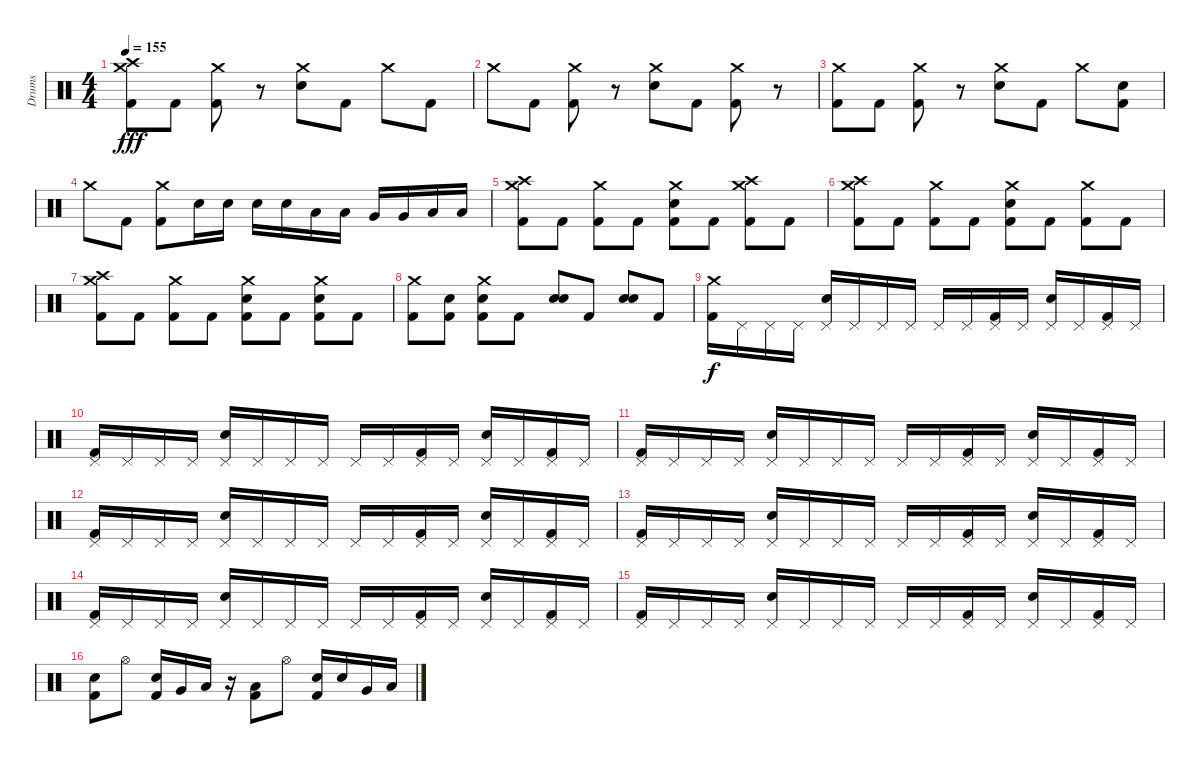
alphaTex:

\track ("Drums" "Drums") {instrument percussion}
\staff {score}
\articulation defaults
\ts (4 4)
\tempo 155
\clef neutral
\ks c
("Crash high (hit)" "Crash medium (hit)" "Kick (hit) 2").8{dy fff} "Kick (hit) 2".8 ("Crash medium (hit)" "Kick (hit) 2").8 r.8 ("Crash medium (hit)" "Electric Snare (hit)").8 "Kick (hit) 2".8 "Crash medium (hit)".8 "Kick (hit) 2".8 |
"Crash medium (hit)".8 "Kick (hit) 2".8 ("Crash medium (hit)" "Kick (hit) 2").8 r.8 ("Crash medium (hit)" "Electric Snare (hit)").8 "Kick (hit) 2".8 ("Crash medium (hit)" "Kick (hit) 2").8 r.8 |
("Crash medium (hit)" "Kick (hit) 2").8 "Kick (hit) 2".8 ("Crash medium (hit)" "Kick (hit) 2").8 r.8 ("Crash medium (hit)" "Electric Snare (hit)").8 "Kick (hit) 2".8 "Crash medium (hit)".8 ("Electric Snare (hit)" "Kick (hit) 2").8 |
"Crash medium (hit)".8 "Kick (hit) 2".8 ("Crash medium (hit)" "Kick (hit) 2").8 "Electric Snare (hit)".16 "Electric Snare (hit)".16 "Electric Snare (hit)".16 "Electric Snare (hit)".16 "Low Tom (hit)".16 "Low Tom (hit)".16 "Very Low Tom (hit)".16 "Very Low Tom (hit)".16 "Low Floor Tom (hit)".16 "Low Floor Tom (hit)".16 |
("Crash high (hit)" "Crash medium (hit)" "Kick (hit) 2").8 "Kick (hit) 2".8 ("Crash medium (hit)" "Kick (hit) 2").8 "Kick (hit) 2".8 ("Crash medium (hit)" "Electric Snare (hit)" "Kick (hit) 2").8 "Kick (hit) 2".8 ("Crash high (hit)" "Crash medium (hit)" "Kick (hit) 2").8 "Kick (hit) 2".8 |
("Crash high (hit)" "Crash medium (hit)" "Kick (hit) 2").8 "Kick (hit) 2".8 ("Crash medium (hit)" "Kick (hit) 2").8 "Kick (hit) 2".8 ("Crash medium (hit)" "Electric Snare (hit)" "Kick (hit) 2").8 "Kick (hit) 2".8 ("Crash medium (hit)" "Kick (hit) 2").8 "Kick (hit) 2".8 |
("Crash high (hit)" "Crash medium (hit)" "Kick (hit) 2").8 "Kick (hit) 2".8 ("Crash medium (hit)" "Kick (hit) 2").8 "Kick (hit) 2".8 ("Crash medium (hit)" "Electric Snare (hit)" "Kick (hit) 2").8 "Kick (hit) 2".8 ("Crash medium (hit)" "Electric Snare (hit)" "Kick (hit) 2").8 "Kick (hit) 2".8 |
("Crash medium (hit)" "Kick (hit) 2").8 ("Electric Snare (hit)" "Kick (hit) 2").8 ("Crash medium (hit)" "Electric Snare (hit)" "Kick (hit) 2").8 "Kick (hit) 2".8 ("Electric Snare (hit)" "Electric Snare (hit)").8 "Kick (hit) 2".8 ("Electric Snare (hit)" "Electric Snare (hit)").8 "Kick (hit) 2".8 |
("Crash medium (hit)" "Kick (hit) 2").16{dy f} "Pedal Hi-Hat (hit)".16 "Pedal Hi-Hat (hit)".16 "Pedal Hi-Hat (hit)".16 ("Pedal Hi-Hat (hit)" "Electric Snare (hit)").16 "Pedal Hi-Hat (hit)".16 "Pedal Hi-Hat (hit)".16 "Pedal Hi-Hat (hit)".16 "Pedal Hi-Hat (hit)".16 "Pedal Hi-Hat (hit)".16 ("Pedal Hi-Hat (hit)" "Kick (hit) 2").16 "Pedal Hi-Hat (hit)".16 ("Pedal Hi-Hat (hit)" "Electric Snare (hit)").16 "Pedal Hi-Hat (hit)".16 ("Pedal Hi-Hat (hit)" "Kick (hit) 2").16 "Pedal Hi-Hat (hit)".16 |
("Pedal Hi-Hat (hit)" "Kick (hit) 2").16 "Pedal Hi-Hat (hit)".16 "Pedal Hi-Hat (hit)".16 "Pedal Hi-Hat (hit)".16 ("Pedal Hi-Hat (hit)" "Electric Snare (hit)").16 "Pedal Hi-Hat (hit)".16 "Pedal Hi-Hat (hit)".16 "Pedal Hi-Hat (hit)".16 "Pedal Hi-Hat (hit)".16 "Pedal Hi-Hat (hit)".16 ("Pedal Hi-Hat (hit)" "Kick (hit) 2").16 "Pedal Hi-Hat (hit)".16 ("Pedal Hi-Hat (hit)" "Electric Snare (hit)").16 "Pedal Hi-Hat (hit)".16 ("Pedal Hi-Hat (hit)" "Kick (hit) 2").16 "Pedal Hi-Hat (hit)".16 |
("Pedal Hi-Hat (hit)" "Kick (hit) 2").16 "Pedal Hi-Hat (hit)".16 "Pedal Hi-Hat (hit)".16 "Pedal Hi-Hat (hit)".16 ("Pedal Hi-Hat (hit)" "Electric Snare (hit)").16 "Pedal Hi-Hat (hit)".16 "Pedal Hi-Hat (hit)".16 "Pedal Hi-Hat (hit)".16 "Pedal Hi-Hat (hit)".16 "Pedal Hi-Hat (hit)".16 ("Pedal Hi-Hat (hit)" "Kick (hit) 2").16 "Pedal Hi-Hat (hit)".16 ("Pedal Hi-Hat (hit)" "Electric Snare (hit)").16 "Pedal Hi-Hat (hit)".16 ("Pedal Hi-Hat (hit)" "Kick (hit) 2").16 "Pedal Hi-Hat (hit)".16 |
("Pedal Hi-Hat (hit)" "Kick (hit) 2").16 "Pedal Hi-Hat (hit)".16 "Pedal Hi-Hat (hit)".16 "Pedal Hi-Hat (hit)".16 ("Pedal Hi-Hat (hit)" "Electric Snare (hit)").16 "Pedal Hi-Hat (hit)".16 "Pedal Hi-Hat (hit)".16 "Pedal Hi-Hat (hit)".16 "Pedal Hi-Hat (hit)".16 "Pedal Hi-Hat (hit)".16 ("Pedal Hi-Hat (hit)" "Kick (hit) 2").16 "Pedal Hi-Hat (hit)".16 ("Pedal Hi-Hat (hit)" "Electric Snare (hit)").16 "Pedal Hi-Hat (hit)".16 ("Pedal Hi-Hat (hit)" "Kick (hit) 2").16 "Pedal Hi-Hat (hit)".16 |
("Pedal Hi-Hat (hit)" "Kick (hit) 2").16 "Pedal Hi-Hat (hit)".16 "Pedal Hi-Hat (hit)".16 "Pedal Hi-Hat (hit)".16 ("Pedal Hi-Hat (hit)" "Electric Snare (hit)").16 "Pedal Hi-Hat (hit)".16 "Pedal Hi-Hat (hit)".16 "Pedal Hi-Hat (hit)".16 "Pedal Hi-Hat (hit)".16 "Pedal Hi-Hat (hit)".16 ("Pedal Hi-Hat (hit)" "Kick (hit) 2").16 "Pedal Hi-Hat (hit)".16 ("Pedal Hi-Hat (hit)" "Electric Snare (hit)").16 "Pedal Hi-Hat (hit)".16 ("Pedal Hi-Hat (hit)" "Kick (hit) 2").16 "Pedal Hi-Hat (hit)".16 |
("Pedal Hi-Hat (hit)" "Kick (hit) 2").16 "Pedal Hi-Hat (hit)".16 "Pedal Hi-Hat (hit)".16 "Pedal Hi-Hat (hit)".16 ("Pedal Hi-Hat (hit)" "Electric Snare (hit)").16 "Pedal Hi-Hat (hit)".16 "Pedal Hi-Hat (hit)".16 "Pedal Hi-Hat (hit)".16 "Pedal Hi-Hat (hit)".16 "Pedal Hi-Hat (hit)".16 ("Pedal Hi-Hat (hit)" "Kick (hit) 2").16 "Pedal Hi-Hat (hit)".16 ("Pedal Hi-Hat (hit)" "Electric Snare (hit)").16 "Pedal Hi-Hat (hit)".16 ("Pedal Hi-Hat (hit)" "Kick (hit) 2").16 "Pedal Hi-Hat (hit)".16 |
("Pedal Hi-Hat (hit)" "Kick (hit) 2").16 "Pedal Hi-Hat (hit)".16 "Pedal Hi-Hat (hit)".16 "Pedal Hi-Hat (hit)".16 ("Pedal Hi-Hat (hit)" "Electric Snare (hit)").16 "Pedal Hi-Hat (hit)".16 "Pedal Hi-Hat (hit)".16 "Pedal Hi-Hat (hit)".16 "Pedal Hi-Hat (hit)".16 "Pedal Hi-Hat (hit)".16 ("Pedal Hi-Hat (hit)" "Kick (hit) 2").16 "Pedal Hi-Hat (hit)".16 ("Pedal Hi-Hat (hit)" "Electric Snare (hit)").16 "Pedal Hi-Hat (hit)".16 ("Pedal Hi-Hat (hit)" "Kick (hit) 2").16 "Pedal Hi-Hat (hit)".16 |
("Electric Snare (hit)" "Kick (hit) 2").8 "Hi-Hat (open)".8 ("Electric Snare (hit)" "Kick (hit) 2").16 "Very Low Tom (hit)".16 "Low Floor Tom (hit)".16 r.16 ("Low Floor Tom (hit)" "Kick (hit) 2").8 "Hi-Hat (open)".8 ("Electric Snare (hit)" "Kick (hit) 2").16 "Electric Snare (hit)".16 "Very Low Tom (hit)".16 "Low Floor Tom (hit)".16
